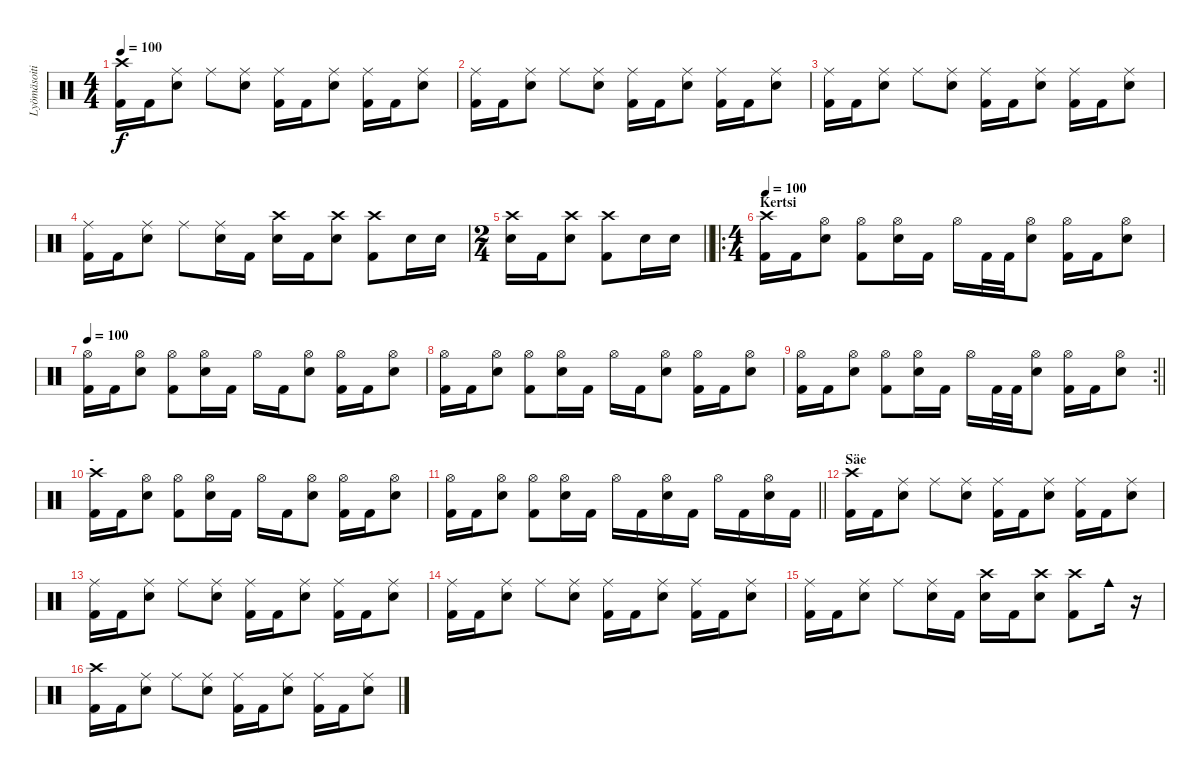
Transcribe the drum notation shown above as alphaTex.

\track ("Lyömäsoitin" "Lyömäsoiti") {instrument percussion}
\staff {score}
\articulation defaults
\ts (4 4)
\tempo 100
\clef neutral
\ks c
("Crash high (hit)" "Kick (hit) 2").16{dy f} "Kick (hit) 2".16 ("Ride (middle)" "Snare (hit) 2").8 "Ride (middle)".8 ("Ride (middle)" "Snare (hit) 2").8 ("Ride (middle)" "Kick (hit) 2").16 "Kick (hit) 2".16 ("Ride (middle)" "Snare (hit) 2").8 ("Ride (middle)" "Kick (hit) 2").16 "Kick (hit) 2".16 ("Ride (middle)" "Snare (hit) 2").8 |
("Ride (middle)" "Kick (hit) 2").16 "Kick (hit) 2".16 ("Ride (middle)" "Snare (hit) 2").8 "Ride (middle)".8 ("Ride (middle)" "Snare (hit) 2").8 ("Ride (middle)" "Kick (hit) 2").16 "Kick (hit) 2".16 ("Ride (middle)" "Snare (hit) 2").8 ("Ride (middle)" "Kick (hit) 2").16 "Kick (hit) 2".16 ("Ride (middle)" "Snare (hit) 2").8 |
("Ride (middle)" "Kick (hit) 2").16 "Kick (hit) 2".16 ("Ride (middle)" "Snare (hit) 2").8 "Ride (middle)".8 ("Ride (middle)" "Snare (hit) 2").8 ("Ride (middle)" "Kick (hit) 2").16 "Kick (hit) 2".16 ("Ride (middle)" "Snare (hit) 2").8 ("Ride (middle)" "Kick (hit) 2").16 "Kick (hit) 2".16 ("Ride (middle)" "Snare (hit) 2").8 |
("Ride (middle)" "Kick (hit) 2").16 "Kick (hit) 2".16 ("Ride (middle)" "Snare (hit) 2").8 "Ride (middle)".8 ("Ride (middle)" "Snare (hit) 2").16 "Kick (hit) 2".16 ("Crash high (hit)" "Snare (hit) 2").16 "Kick (hit) 2".16 ("Crash high (hit)" "Snare (hit) 2").8 ("Crash high (hit)" "Kick (hit) 2").8 "Snare (hit) 2".16 "Snare (hit) 2".16 |
\ts (2 4)
\barLineRight lightlight
("Crash high (hit)" "Snare (hit) 2").16 "Kick (hit) 2".16 ("Crash high (hit)" "Snare (hit) 2").8 ("Crash high (hit)" "Kick (hit) 2").8 "Snare (hit) 2".16 "Snare (hit) 2".16 |
\ro
\ts (4 4)
\section ("" "Kertsi")
\tempo 100
("Crash high (hit)" "Kick (hit) 2").16 "Kick (hit) 2".16 ("Hi-Hat (open)" "Snare (hit) 2").8 ("Hi-Hat (open)" "Kick (hit) 2").8 ("Hi-Hat (open)" "Snare (hit) 2").16 "Kick (hit) 2".16 "Hi-Hat (open)".16 "Kick (hit) 2".32 "Kick (hit) 2".32 ("Hi-Hat (open)" "Snare (hit) 2").8 ("Hi-Hat (open)" "Kick (hit) 2").16 "Kick (hit) 2".16 ("Hi-Hat (open)" "Snare (hit) 2").8 |
\tempo 100
("Hi-Hat (open)" "Kick (hit) 2").16 "Kick (hit) 2".16 ("Hi-Hat (open)" "Snare (hit) 2").8 ("Hi-Hat (open)" "Kick (hit) 2").8 ("Hi-Hat (open)" "Snare (hit) 2").16 "Kick (hit) 2".16 "Hi-Hat (open)".16 "Kick (hit) 2".16 ("Hi-Hat (open)" "Snare (hit) 2").8 ("Hi-Hat (open)" "Kick (hit) 2").16 "Kick (hit) 2".16 ("Hi-Hat (open)" "Snare (hit) 2").8 |
("Hi-Hat (open)" "Kick (hit) 2").16 "Kick (hit) 2".16 ("Hi-Hat (open)" "Snare (hit) 2").8 ("Hi-Hat (open)" "Kick (hit) 2").8 ("Hi-Hat (open)" "Snare (hit) 2").16 "Kick (hit) 2".16 "Hi-Hat (open)".16 "Kick (hit) 2".16 ("Hi-Hat (open)" "Snare (hit) 2").8 ("Hi-Hat (open)" "Kick (hit) 2").16 "Kick (hit) 2".16 ("Hi-Hat (open)" "Snare (hit) 2").8 |
\rc 2
\barLineRight lightlight
("Hi-Hat (open)" "Kick (hit) 2").16 "Kick (hit) 2".16 ("Hi-Hat (open)" "Snare (hit) 2").8 ("Hi-Hat (open)" "Kick (hit) 2").8 ("Hi-Hat (open)" "Snare (hit) 2").16 "Kick (hit) 2".16 "Hi-Hat (open)".16 "Kick (hit) 2".32 "Kick (hit) 2".32 ("Hi-Hat (open)" "Snare (hit) 2").8 ("Hi-Hat (open)" "Kick (hit) 2").16 "Kick (hit) 2".16 ("Hi-Hat (open)" "Snare (hit) 2").8 |
\section ("" "-")
("Crash high (hit)" "Kick (hit) 2").16 "Kick (hit) 2".16 ("Hi-Hat (open)" "Snare (hit) 2").8 ("Hi-Hat (open)" "Kick (hit) 2").8 ("Hi-Hat (open)" "Snare (hit) 2").16 "Kick (hit) 2".16 "Hi-Hat (open)".16 "Kick (hit) 2".16 ("Hi-Hat (open)" "Snare (hit) 2").8 ("Hi-Hat (open)" "Kick (hit) 2").16 "Kick (hit) 2".16 ("Hi-Hat (open)" "Snare (hit) 2").8 |
\barLineRight lightlight
("Hi-Hat (open)" "Kick (hit) 2").16 "Kick (hit) 2".16 ("Hi-Hat (open)" "Snare (hit) 2").8 ("Hi-Hat (open)" "Kick (hit) 2").8 ("Hi-Hat (open)" "Snare (hit) 2").16 "Kick (hit) 2".16 "Hi-Hat (open)".16 "Kick (hit) 2".16 ("Hi-Hat (open)" "Snare (hit) 2").16 "Kick (hit) 2".16 "Hi-Hat (open)".16 "Kick (hit) 2".16 ("Hi-Hat (open)" "Snare (hit) 2").16 "Kick (hit) 2".16 |
\section ("" "Säe")
("Crash high (hit)" "Kick (hit) 2").16 "Kick (hit) 2".16 ("Ride (middle)" "Snare (hit) 2").8 "Ride (middle)".8 ("Ride (middle)" "Snare (hit) 2").8 ("Ride (middle)" "Kick (hit) 2").16 "Kick (hit) 2".16 ("Ride (middle)" "Snare (hit) 2").8 ("Ride (middle)" "Kick (hit) 2").16 "Kick (hit) 2".16 ("Ride (middle)" "Snare (hit) 2").8 |
("Ride (middle)" "Kick (hit) 2").16 "Kick (hit) 2".16 ("Ride (middle)" "Snare (hit) 2").8 "Ride (middle)".8 ("Ride (middle)" "Snare (hit) 2").8 ("Ride (middle)" "Kick (hit) 2").16 "Kick (hit) 2".16 ("Ride (middle)" "Snare (hit) 2").8 ("Ride (middle)" "Kick (hit) 2").16 "Kick (hit) 2".16 ("Ride (middle)" "Snare (hit) 2").8 |
("Ride (middle)" "Kick (hit) 2").16 "Kick (hit) 2".16 ("Ride (middle)" "Snare (hit) 2").8 "Ride (middle)".8 ("Ride (middle)" "Snare (hit) 2").8 ("Ride (middle)" "Kick (hit) 2").16 "Kick (hit) 2".16 ("Ride (middle)" "Snare (hit) 2").8 ("Ride (middle)" "Kick (hit) 2").16 "Kick (hit) 2".16 ("Ride (middle)" "Snare (hit) 2").8 |
("Ride (middle)" "Kick (hit) 2").16 "Kick (hit) 2".16 ("Ride (middle)" "Snare (hit) 2").8 "Ride (middle)".8 ("Ride (middle)" "Snare (hit) 2").16 "Kick (hit) 2".16 ("Crash high (hit)" "Snare (hit) 2").16 "Kick (hit) 2".16 ("Crash high (hit)" "Snare (hit) 2").8 ("Crash high (hit)" "Kick (hit) 2").8 "Cowbell medium (hit)".16 r.16 |
("Crash high (hit)" "Kick (hit) 2").16 "Kick (hit) 2".16 ("Ride (middle)" "Snare (hit) 2").8 "Ride (middle)".8 ("Ride (middle)" "Snare (hit) 2").8 ("Ride (middle)" "Kick (hit) 2").16 "Kick (hit) 2".16 ("Ride (middle)" "Snare (hit) 2").8 ("Ride (middle)" "Kick (hit) 2").16 "Kick (hit) 2".16 ("Ride (middle)" "Snare (hit) 2").8
